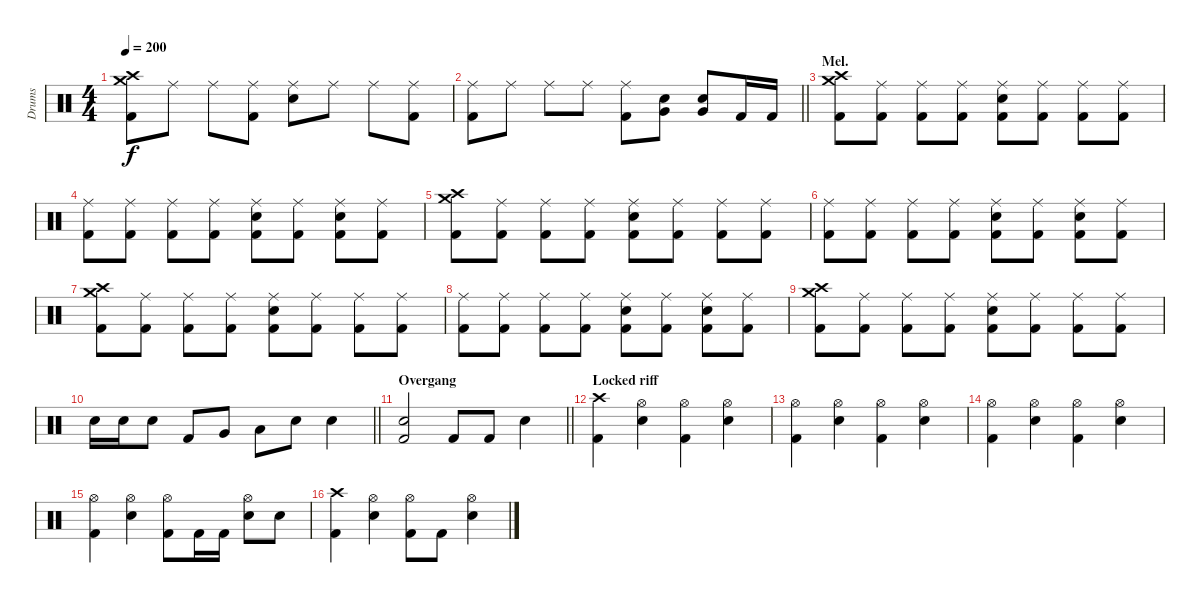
\track ("Drums" "Drums") {instrument percussion}
\staff {score}
\articulation defaults
\ts (4 4)
\tempo 200
\clef neutral
\ks c
("Crash medium (hit)" "Crash high (hit)" "Kick (hit) 2").8{dy f} "Ride (middle)".8 "Ride (middle)".8 ("Ride (middle)" "Kick (hit) 2").8 ("Ride (middle)" "Snare (hit) 2").8 "Ride (middle)".8 "Ride (middle)".8 ("Ride (middle)" "Kick (hit) 2").8 |
\barLineRight lightlight
("Ride (middle)" "Kick (hit) 2").8 "Ride (middle)".8 "Ride (middle)".8 "Ride (middle)".8 ("Ride (middle)" "Kick (hit) 2").8 ("Very Low Tom (hit)" "Snare (hit) 2").8 ("Very Low Tom (hit)" "Snare (hit) 2").8 "Kick (hit) 2".16 "Kick (hit) 2".16 |
\section ("" "Mel.")
("Crash medium (hit)" "Crash high (hit)" "Kick (hit) 2").8 ("Ride (middle)" "Kick (hit) 2").8 ("Ride (middle)" "Kick (hit) 2").8 ("Ride (middle)" "Kick (hit) 2").8 ("Ride (middle)" "Snare (hit) 2" "Kick (hit) 2").8 ("Ride (middle)" "Kick (hit) 2").8 ("Ride (middle)" "Kick (hit) 2").8 ("Ride (middle)" "Kick (hit) 2").8 |
("Ride (middle)" "Kick (hit) 2").8 ("Ride (middle)" "Kick (hit) 2").8 ("Ride (middle)" "Kick (hit) 2").8 ("Ride (middle)" "Kick (hit) 2").8 ("Ride (middle)" "Snare (hit) 2" "Kick (hit) 2").8 ("Ride (middle)" "Kick (hit) 2").8 ("Ride (middle)" "Snare (hit) 2" "Kick (hit) 2").8 ("Ride (middle)" "Kick (hit) 2").8 |
("Crash medium (hit)" "Crash high (hit)" "Kick (hit) 2").8 ("Ride (middle)" "Kick (hit) 2").8 ("Ride (middle)" "Kick (hit) 2").8 ("Ride (middle)" "Kick (hit) 2").8 ("Ride (middle)" "Snare (hit) 2" "Kick (hit) 2").8 ("Ride (middle)" "Kick (hit) 2").8 ("Ride (middle)" "Kick (hit) 2").8 ("Ride (middle)" "Kick (hit) 2").8 |
("Ride (middle)" "Kick (hit) 2").8 ("Ride (middle)" "Kick (hit) 2").8 ("Ride (middle)" "Kick (hit) 2").8 ("Ride (middle)" "Kick (hit) 2").8 ("Ride (middle)" "Snare (hit) 2" "Kick (hit) 2").8 ("Ride (middle)" "Kick (hit) 2").8 ("Ride (middle)" "Snare (hit) 2" "Kick (hit) 2").8 ("Ride (middle)" "Kick (hit) 2").8 |
("Crash medium (hit)" "Crash high (hit)" "Kick (hit) 2").8 ("Ride (middle)" "Kick (hit) 2").8 ("Ride (middle)" "Kick (hit) 2").8 ("Ride (middle)" "Kick (hit) 2").8 ("Ride (middle)" "Snare (hit) 2" "Kick (hit) 2").8 ("Ride (middle)" "Kick (hit) 2").8 ("Ride (middle)" "Kick (hit) 2").8 ("Ride (middle)" "Kick (hit) 2").8 |
("Ride (middle)" "Kick (hit) 2").8 ("Ride (middle)" "Kick (hit) 2").8 ("Ride (middle)" "Kick (hit) 2").8 ("Ride (middle)" "Kick (hit) 2").8 ("Ride (middle)" "Snare (hit) 2" "Kick (hit) 2").8 ("Ride (middle)" "Kick (hit) 2").8 ("Ride (middle)" "Snare (hit) 2" "Kick (hit) 2").8 ("Ride (middle)" "Kick (hit) 2").8 |
("Crash medium (hit)" "Crash high (hit)" "Kick (hit) 2").8 ("Ride (middle)" "Kick (hit) 2").8 ("Ride (middle)" "Kick (hit) 2").8 ("Ride (middle)" "Kick (hit) 2").8 ("Ride (middle)" "Snare (hit) 2" "Kick (hit) 2").8 ("Ride (middle)" "Kick (hit) 2").8 ("Ride (middle)" "Kick (hit) 2").8 ("Ride (middle)" "Kick (hit) 2").8 |
\barLineRight lightlight "Snare (hit) 2".16 "Snare (hit) 2".16 "Snare (hit) 2".8 "Kick (hit) 2".8 "Very Low Tom (hit)".8 "Low Floor Tom (hit)".8 "Snare (hit) 2".8 "Snare (hit) 2".4
|
\section ("" "Overgang")
\barLineRight lightlight
("Snare (hit) 2" "Kick (hit) 2").2 "Kick (hit) 2".8 "Kick (hit) 2".8 "Snare (hit) 2".4 |
\section ("" "Locked riff")
("Crash high (hit)" "Kick (hit) 2").4 ("Hi-Hat (open)" "Snare (hit) 2").4 ("Hi-Hat (open)" "Kick (hit) 2").4 ("Hi-Hat (open)" "Snare (hit) 2").4 |
("Hi-Hat (open)" "Kick (hit) 2").4 ("Hi-Hat (open)" "Snare (hit) 2").4 ("Hi-Hat (open)" "Kick (hit) 2").4 ("Hi-Hat (open)" "Snare (hit) 2").4 |
("Hi-Hat (open)" "Kick (hit) 2").4 ("Hi-Hat (open)" "Snare (hit) 2").4 ("Hi-Hat (open)" "Kick (hit) 2").4 ("Hi-Hat (open)" "Snare (hit) 2").4 |
("Hi-Hat (open)" "Kick (hit) 2").4 ("Hi-Hat (open)" "Snare (hit) 2").4 ("Hi-Hat (open)" "Kick (hit) 2").8 "Kick (hit) 2".16 "Kick (hit) 2".16 ("Hi-Hat (open)" "Snare (hit) 2").8 "Snare (hit) 2".8 |
("Crash high (hit)" "Kick (hit) 2").4 ("Hi-Hat (open)" "Snare (hit) 2").4 ("Hi-Hat (open)" "Kick (hit) 2").8 "Kick (hit) 2".8 ("Hi-Hat (open)" "Snare (hit) 2").4
